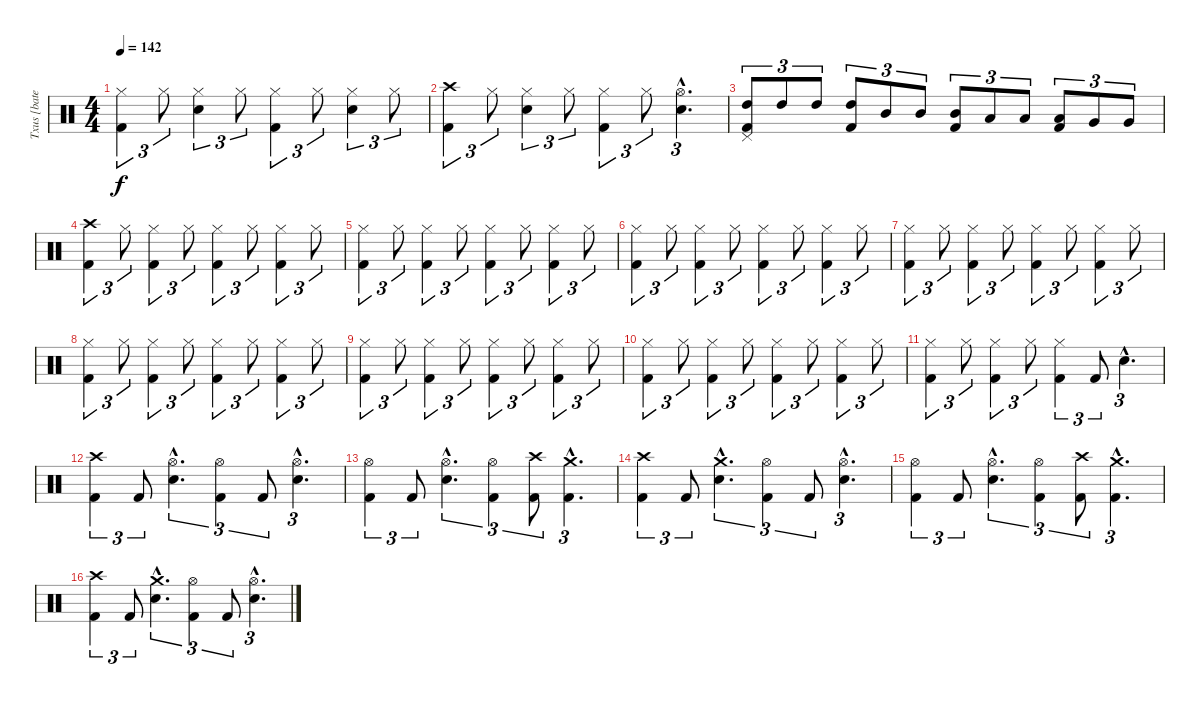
\track ("Txus [bateria]" "Txus [bate") {instrument percussion}
\staff {score}
\articulation defaults
\ts (4 4)
\tempo 142
\clef neutral
\ks c
("Hi-Hat (closed)" "Kick (hit) 2").4{tu (3 2) dy f} "Hi-Hat (closed)".8{tu (3 2)} ("Hi-Hat (closed)" "Snare (hit) 2").4{tu (3 2)} "Hi-Hat (closed)".8{tu (3 2)} ("Hi-Hat (closed)" "Kick (hit) 2").4{tu (3 2)} "Hi-Hat (closed)".8{tu (3 2)} ("Hi-Hat (closed)" "Snare (hit) 2").4{tu (3 2)} "Hi-Hat (closed)".8{tu (3 2)} |
("Crash high (hit)" "Kick (hit) 2").4{tu (3 2)} "Hi-Hat (closed)".8{tu (3 2)} ("Hi-Hat (closed)" "Snare (hit) 2").4{tu (3 2)} "Hi-Hat (closed)".8{tu (3 2)} ("Hi-Hat (closed)" "Kick (hit) 2").4{tu (3 2)} "Hi-Hat (closed)".8{tu (3 2)} ("Hi-Hat (open)"{hac} "Snare (hit) 2"{hac}).4{d tu (3 2)} |
("Pedal Hi-Hat (hit)" "High Tom (hit)" "Kick (hit) 2").8{tu (3 2)} "High Tom (hit)".8{tu (3 2)} "High Tom (hit)".8{tu (3 2)} ("High Tom (hit)" "Kick (hit) 2").8{tu (3 2)} "Mid Tom (hit)".8{tu (3 2)} "Mid Tom (hit)".8{tu (3 2)} ("Mid Tom (hit)" "Kick (hit) 2").8{tu (3 2)} "Low Tom (hit)".8{tu (3 2)} "Low Tom (hit)".8{tu (3 2)} ("Low Tom (hit)" "Kick (hit) 2").8{tu (3 2)} "Very Low Tom (hit)".8{tu (3 2)} "Very Low Tom (hit)".8{tu (3 2)} |
("Crash high (hit)" "Kick (hit) 2").4{tu (3 2)} "Hi-Hat (closed)".8{tu (3 2)} ("Hi-Hat (closed)" "Kick (hit) 2").4{tu (3 2)} "Hi-Hat (closed)".8{tu (3 2)} ("Hi-Hat (closed)" "Kick (hit) 2").4{tu (3 2)} "Hi-Hat (closed)".8{tu (3 2)} ("Hi-Hat (closed)" "Kick (hit) 2").4{tu (3 2)} "Hi-Hat (closed)".8{tu (3 2)} |
("Hi-Hat (closed)" "Kick (hit) 2").4{tu (3 2)} "Hi-Hat (closed)".8{tu (3 2)} ("Hi-Hat (closed)" "Kick (hit) 2").4{tu (3 2)} "Hi-Hat (closed)".8{tu (3 2)} ("Hi-Hat (closed)" "Kick (hit) 2").4{tu (3 2)} "Hi-Hat (closed)".8{tu (3 2)} ("Hi-Hat (closed)" "Kick (hit) 2").4{tu (3 2)} "Hi-Hat (closed)".8{tu (3 2)} |
("Hi-Hat (closed)" "Kick (hit) 2").4{tu (3 2)} "Hi-Hat (closed)".8{tu (3 2)} ("Hi-Hat (closed)" "Kick (hit) 2").4{tu (3 2)} "Hi-Hat (closed)".8{tu (3 2)} ("Hi-Hat (closed)" "Kick (hit) 2").4{tu (3 2)} "Hi-Hat (closed)".8{tu (3 2)} ("Hi-Hat (closed)" "Kick (hit) 2").4{tu (3 2)} "Hi-Hat (closed)".8{tu (3 2)} |
("Hi-Hat (closed)" "Kick (hit) 2").4{tu (3 2)} "Hi-Hat (closed)".8{tu (3 2)} ("Hi-Hat (closed)" "Kick (hit) 2").4{tu (3 2)} "Hi-Hat (closed)".8{tu (3 2)} ("Hi-Hat (closed)" "Kick (hit) 2").4{tu (3 2)} "Hi-Hat (closed)".8{tu (3 2)} ("Hi-Hat (closed)" "Kick (hit) 2").4{tu (3 2)} "Hi-Hat (closed)".8{tu (3 2)} |
("Hi-Hat (closed)" "Kick (hit) 2").4{tu (3 2)} "Hi-Hat (closed)".8{tu (3 2)} ("Hi-Hat (closed)" "Kick (hit) 2").4{tu (3 2)} "Hi-Hat (closed)".8{tu (3 2)} ("Hi-Hat (closed)" "Kick (hit) 2").4{tu (3 2)} "Hi-Hat (closed)".8{tu (3 2)} ("Hi-Hat (closed)" "Kick (hit) 2").4{tu (3 2)} "Hi-Hat (closed)".8{tu (3 2)} |
("Hi-Hat (closed)" "Kick (hit) 2").4{tu (3 2)} "Hi-Hat (closed)".8{tu (3 2)} ("Hi-Hat (closed)" "Kick (hit) 2").4{tu (3 2)} "Hi-Hat (closed)".8{tu (3 2)} ("Hi-Hat (closed)" "Kick (hit) 2").4{tu (3 2)} "Hi-Hat (closed)".8{tu (3 2)} ("Hi-Hat (closed)" "Kick (hit) 2").4{tu (3 2)} "Hi-Hat (closed)".8{tu (3 2)} |
("Hi-Hat (closed)" "Kick (hit) 2").4{tu (3 2)} "Hi-Hat (closed)".8{tu (3 2)} ("Hi-Hat (closed)" "Kick (hit) 2").4{tu (3 2)} "Hi-Hat (closed)".8{tu (3 2)} ("Hi-Hat (closed)" "Kick (hit) 2").4{tu (3 2)} "Hi-Hat (closed)".8{tu (3 2)} ("Hi-Hat (closed)" "Kick (hit) 2").4{tu (3 2)} "Hi-Hat (closed)".8{tu (3 2)} |
("Hi-Hat (closed)" "Kick (hit) 2").4{tu (3 2)} "Hi-Hat (closed)".8{tu (3 2)} ("Hi-Hat (closed)" "Kick (hit) 2").4{tu (3 2)} "Hi-Hat (closed)".8{tu (3 2)} ("Hi-Hat (closed)" "Kick (hit) 2").4{tu (3 2)} "Kick (hit) 2".8{tu (3 2)} "Snare (hit) 2"{hac}.4{d tu (3 2)} |
("Crash high (hit)" "Kick (hit) 2").4{tu (3 2)} "Kick (hit) 2".8{tu (3 2)} ("Hi-Hat (open)"{hac} "Snare (hit) 2"{hac}).4{d tu (3 2)} ("Hi-Hat (open)" "Kick (hit) 2").4{tu (3 2)} "Kick (hit) 2".8{tu (3 2)} ("Hi-Hat (open)"{hac} "Snare (hit) 2"{hac}).4{d tu (3 2)} |
("Hi-Hat (open)" "Kick (hit) 2").4{tu (3 2)} "Kick (hit) 2".8{tu (3 2)} ("Hi-Hat (open)"{hac} "Snare (hit) 2"{hac}).4{d tu (3 2)} ("Hi-Hat (open)" "Kick (hit) 2").4{tu (3 2)} ("Crash high (hit)" "Kick (hit) 2").8{tu (3 2)} ("Crash medium (hit)"{hac} "Kick (hit) 2"{hac}).4{d tu (3 2)} |
("Crash high (hit)" "Kick (hit) 2").4{tu (3 2)} "Kick (hit) 2".8{tu (3 2)} ("Crash medium (hit)"{hac} "Snare (hit) 2"{hac}).4{d tu (3 2)} ("Hi-Hat (open)" "Kick (hit) 2").4{tu (3 2)} "Kick (hit) 2".8{tu (3 2)} ("Hi-Hat (open)"{hac} "Snare (hit) 2"{hac}).4{d tu (3 2)} |
("Hi-Hat (open)" "Kick (hit) 2").4{tu (3 2)} "Kick (hit) 2".8{tu (3 2)} ("Hi-Hat (open)"{hac} "Snare (hit) 2"{hac}).4{d tu (3 2)} ("Hi-Hat (open)" "Kick (hit) 2").4{tu (3 2)} ("Crash high (hit)" "Kick (hit) 2").8{tu (3 2)} ("Crash medium (hit)"{hac} "Kick (hit) 2"{hac}).4{d tu (3 2)} |
("Crash high (hit)" "Kick (hit) 2").4{tu (3 2)} "Kick (hit) 2".8{tu (3 2)} ("Crash medium (hit)"{hac} "Snare (hit) 2"{hac}).4{d tu (3 2)} ("Hi-Hat (open)" "Kick (hit) 2").4{tu (3 2)} "Kick (hit) 2".8{tu (3 2)} ("Hi-Hat (open)"{hac} "Snare (hit) 2"{hac}).4{d tu (3 2)}
